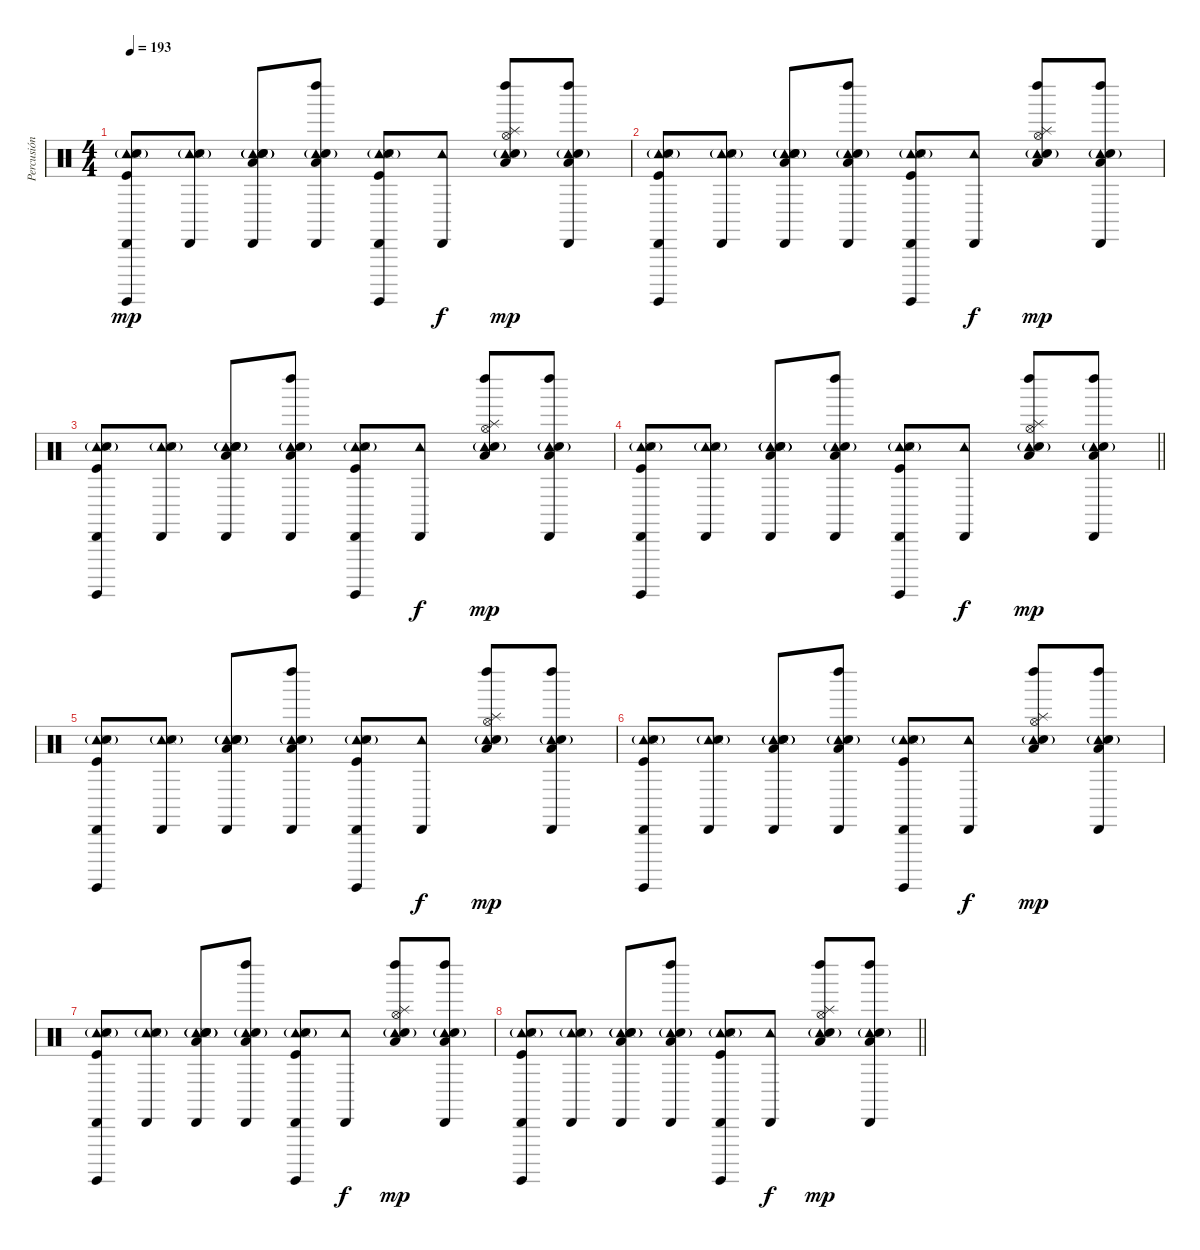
\track ("Percusión" "Percusión") {instrument percussion}
\staff {score}
\articulation defaults
\ts (4 4)
\tempo 193
\clef neutral
\ks c
("Cabasa (hit)" "Tambourine (hit)" "Hand Clap (hit)"{g} "Metronome (hit)" "Surdo (hit)" "Kick (hit)").8{dy mp} ("Cabasa (hit)" "Tambourine (hit)" "Hand Clap (hit)"{g} "Metronome (hit)").8 ("Cabasa (hit)" "Tambourine (hit)" "Hand Clap (hit)"{g} "Metronome (hit)" "Low Tom (hit)" "Electric Snare (hit)"{g}).8 ("Cabasa (hit)" "Tambourine (hit)" "Left Maraca (hit)" "Low Tom (hit)" "Electric Snare (hit)"{g}).8 ("Cabasa (hit)" "Tambourine (hit)" "Hand Clap (hit)"{g} "Metronome (hit)" "Surdo (hit)" "Kick (hit)").8 ("Cabasa (hit)" "Tambourine (hit)").8{dy f} ("Hi-Hat (open)" "Tambourine (hit)" "Left Maraca (hit)" "Splash (hit)" "Low Tom (hit)" "Electric Snare (hit)"{g}).8{dy mp} ("Cabasa (hit)" "Tambourine (hit)" "Left Maraca (hit)" "Low Tom (hit)" "Electric Snare (hit)"{g}).8 |
("Cabasa (hit)" "Tambourine (hit)" "Hand Clap (hit)"{g} "Metronome (hit)" "Surdo (hit)" "Kick (hit)").8 ("Cabasa (hit)" "Tambourine (hit)" "Hand Clap (hit)"{g} "Metronome (hit)").8 ("Cabasa (hit)" "Tambourine (hit)" "Hand Clap (hit)"{g} "Metronome (hit)" "Low Tom (hit)" "Electric Snare (hit)"{g}).8 ("Cabasa (hit)" "Tambourine (hit)" "Left Maraca (hit)" "Low Tom (hit)" "Electric Snare (hit)"{g}).8 ("Cabasa (hit)" "Tambourine (hit)" "Hand Clap (hit)"{g} "Metronome (hit)" "Surdo (hit)" "Kick (hit)").8 ("Cabasa (hit)" "Tambourine (hit)").8{dy f} ("Hi-Hat (open)" "Tambourine (hit)" "Left Maraca (hit)" "Splash (hit)" "Low Tom (hit)" "Electric Snare (hit)"{g}).8{dy mp} ("Cabasa (hit)" "Tambourine (hit)" "Left Maraca (hit)" "Low Tom (hit)" "Electric Snare (hit)"{g}).8 |
("Cabasa (hit)" "Tambourine (hit)" "Hand Clap (hit)"{g} "Metronome (hit)" "Surdo (hit)" "Kick (hit)").8 ("Cabasa (hit)" "Tambourine (hit)" "Hand Clap (hit)"{g} "Metronome (hit)").8 ("Cabasa (hit)" "Tambourine (hit)" "Hand Clap (hit)"{g} "Metronome (hit)" "Low Tom (hit)" "Electric Snare (hit)"{g}).8 ("Cabasa (hit)" "Tambourine (hit)" "Left Maraca (hit)" "Low Tom (hit)" "Electric Snare (hit)"{g}).8 ("Cabasa (hit)" "Tambourine (hit)" "Hand Clap (hit)"{g} "Metronome (hit)" "Surdo (hit)" "Kick (hit)").8 ("Cabasa (hit)" "Tambourine (hit)").8{dy f} ("Hi-Hat (open)" "Tambourine (hit)" "Left Maraca (hit)" "Splash (hit)" "Low Tom (hit)" "Electric Snare (hit)"{g}).8{dy mp} ("Cabasa (hit)" "Tambourine (hit)" "Left Maraca (hit)" "Low Tom (hit)" "Electric Snare (hit)"{g}).8 |
\barLineRight lightlight
("Cabasa (hit)" "Tambourine (hit)" "Hand Clap (hit)"{g} "Metronome (hit)" "Surdo (hit)" "Kick (hit)").8 ("Cabasa (hit)" "Tambourine (hit)" "Hand Clap (hit)"{g} "Metronome (hit)").8 ("Cabasa (hit)" "Tambourine (hit)" "Hand Clap (hit)"{g} "Metronome (hit)" "Low Tom (hit)" "Electric Snare (hit)"{g}).8 ("Cabasa (hit)" "Tambourine (hit)" "Left Maraca (hit)" "Low Tom (hit)" "Electric Snare (hit)"{g}).8 ("Cabasa (hit)" "Tambourine (hit)" "Hand Clap (hit)"{g} "Metronome (hit)" "Surdo (hit)" "Kick (hit)").8 ("Cabasa (hit)" "Tambourine (hit)").8{dy f} ("Hi-Hat (open)" "Tambourine (hit)" "Left Maraca (hit)" "Splash (hit)" "Low Tom (hit)" "Electric Snare (hit)"{g}).8{dy mp} ("Cabasa (hit)" "Tambourine (hit)" "Left Maraca (hit)" "Low Tom (hit)" "Electric Snare (hit)"{g}).8 |
("Cabasa (hit)" "Tambourine (hit)" "Hand Clap (hit)"{g} "Metronome (hit)" "Surdo (hit)" "Kick (hit)").8 ("Cabasa (hit)" "Tambourine (hit)" "Hand Clap (hit)"{g} "Metronome (hit)").8 ("Cabasa (hit)" "Tambourine (hit)" "Hand Clap (hit)"{g} "Metronome (hit)" "Low Tom (hit)" "Electric Snare (hit)"{g}).8 ("Cabasa (hit)" "Tambourine (hit)" "Left Maraca (hit)" "Low Tom (hit)" "Electric Snare (hit)"{g}).8 ("Cabasa (hit)" "Tambourine (hit)" "Hand Clap (hit)"{g} "Metronome (hit)" "Surdo (hit)" "Kick (hit)").8 ("Cabasa (hit)" "Tambourine (hit)").8{dy f} ("Hi-Hat (open)" "Tambourine (hit)" "Left Maraca (hit)" "Splash (hit)" "Low Tom (hit)" "Electric Snare (hit)"{g}).8{dy mp} ("Cabasa (hit)" "Tambourine (hit)" "Left Maraca (hit)" "Low Tom (hit)" "Electric Snare (hit)"{g}).8 |
("Cabasa (hit)" "Tambourine (hit)" "Hand Clap (hit)"{g} "Metronome (hit)" "Surdo (hit)" "Kick (hit)").8 ("Cabasa (hit)" "Tambourine (hit)" "Hand Clap (hit)"{g} "Metronome (hit)").8 ("Cabasa (hit)" "Tambourine (hit)" "Hand Clap (hit)"{g} "Metronome (hit)" "Low Tom (hit)" "Electric Snare (hit)"{g}).8 ("Cabasa (hit)" "Tambourine (hit)" "Left Maraca (hit)" "Low Tom (hit)" "Electric Snare (hit)"{g}).8 ("Cabasa (hit)" "Tambourine (hit)" "Hand Clap (hit)"{g} "Metronome (hit)" "Surdo (hit)" "Kick (hit)").8 ("Cabasa (hit)" "Tambourine (hit)").8{dy f} ("Hi-Hat (open)" "Tambourine (hit)" "Left Maraca (hit)" "Splash (hit)" "Low Tom (hit)" "Electric Snare (hit)"{g}).8{dy mp} ("Cabasa (hit)" "Tambourine (hit)" "Left Maraca (hit)" "Low Tom (hit)" "Electric Snare (hit)"{g}).8 |
("Cabasa (hit)" "Tambourine (hit)" "Hand Clap (hit)"{g} "Metronome (hit)" "Surdo (hit)" "Kick (hit)").8 ("Cabasa (hit)" "Tambourine (hit)" "Hand Clap (hit)"{g} "Metronome (hit)").8 ("Cabasa (hit)" "Tambourine (hit)" "Hand Clap (hit)"{g} "Metronome (hit)" "Low Tom (hit)" "Electric Snare (hit)"{g}).8 ("Cabasa (hit)" "Tambourine (hit)" "Left Maraca (hit)" "Low Tom (hit)" "Electric Snare (hit)"{g}).8 ("Cabasa (hit)" "Tambourine (hit)" "Hand Clap (hit)"{g} "Metronome (hit)" "Surdo (hit)" "Kick (hit)").8 ("Cabasa (hit)" "Tambourine (hit)").8{dy f} ("Hi-Hat (open)" "Tambourine (hit)" "Left Maraca (hit)" "Splash (hit)" "Low Tom (hit)" "Electric Snare (hit)"{g}).8{dy mp} ("Cabasa (hit)" "Tambourine (hit)" "Left Maraca (hit)" "Low Tom (hit)" "Electric Snare (hit)"{g}).8 |
\barLineRight lightlight
("Cabasa (hit)" "Tambourine (hit)" "Hand Clap (hit)"{g} "Metronome (hit)" "Surdo (hit)" "Kick (hit)").8 ("Cabasa (hit)" "Tambourine (hit)" "Hand Clap (hit)"{g} "Metronome (hit)").8 ("Cabasa (hit)" "Tambourine (hit)" "Hand Clap (hit)"{g} "Metronome (hit)" "Low Tom (hit)" "Electric Snare (hit)"{g}).8 ("Cabasa (hit)" "Tambourine (hit)" "Left Maraca (hit)" "Low Tom (hit)" "Electric Snare (hit)"{g}).8 ("Cabasa (hit)" "Tambourine (hit)" "Hand Clap (hit)"{g} "Metronome (hit)" "Surdo (hit)" "Kick (hit)").8 ("Cabasa (hit)" "Tambourine (hit)").8{dy f} ("Hi-Hat (open)" "Tambourine (hit)" "Left Maraca (hit)" "Splash (hit)" "Low Tom (hit)" "Electric Snare (hit)"{g}).8{dy mp} ("Cabasa (hit)" "Tambourine (hit)" "Left Maraca (hit)" "Low Tom (hit)" "Electric Snare (hit)"{g}).8
